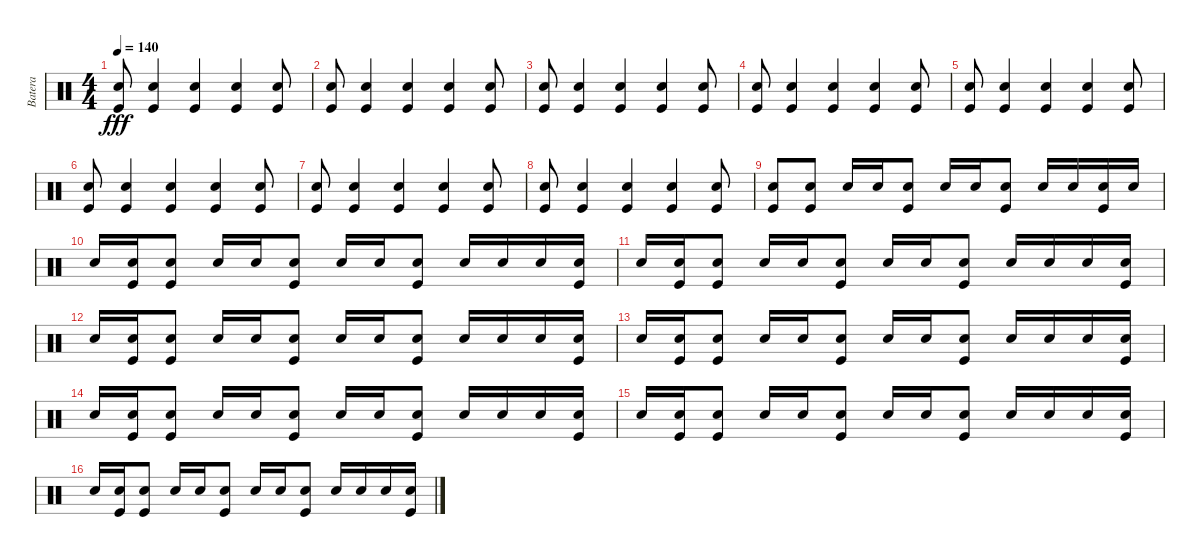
\track ("Batera" "Batera") {instrument percussion}
\staff {score}
\articulation defaults
\ts (4 4)
\tempo 140
\clef neutral
\ks c
("Kick (hit)" "Snare (hit) 2").8{dy fff} ("Kick (hit)" "Snare (hit) 2").4 ("Kick (hit)" "Snare (hit) 2").4 ("Kick (hit)" "Snare (hit) 2").4 ("Kick (hit)" "Snare (hit) 2").8 |
("Kick (hit)" "Snare (hit) 2").8 ("Kick (hit)" "Snare (hit) 2").4 ("Kick (hit)" "Snare (hit) 2").4 ("Kick (hit)" "Snare (hit) 2").4 ("Kick (hit)" "Snare (hit) 2").8 |
("Kick (hit)" "Snare (hit) 2").8 ("Kick (hit)" "Snare (hit) 2").4 ("Kick (hit)" "Snare (hit) 2").4 ("Kick (hit)" "Snare (hit) 2").4 ("Kick (hit)" "Snare (hit) 2").8 |
("Kick (hit)" "Snare (hit) 2").8 ("Kick (hit)" "Snare (hit) 2").4 ("Kick (hit)" "Snare (hit) 2").4 ("Kick (hit)" "Snare (hit) 2").4 ("Kick (hit)" "Snare (hit) 2").8 |
("Kick (hit)" "Snare (hit) 2").8 ("Kick (hit)" "Snare (hit) 2").4 ("Kick (hit)" "Snare (hit) 2").4 ("Kick (hit)" "Snare (hit) 2").4 ("Kick (hit)" "Snare (hit) 2").8 |
("Kick (hit)" "Snare (hit) 2").8 ("Kick (hit)" "Snare (hit) 2").4 ("Kick (hit)" "Snare (hit) 2").4 ("Kick (hit)" "Snare (hit) 2").4 ("Kick (hit)" "Snare (hit) 2").8 |
("Kick (hit)" "Snare (hit) 2").8 ("Kick (hit)" "Snare (hit) 2").4 ("Kick (hit)" "Snare (hit) 2").4 ("Kick (hit)" "Snare (hit) 2").4 ("Kick (hit)" "Snare (hit) 2").8 |
("Kick (hit)" "Snare (hit) 2").8 ("Kick (hit)" "Snare (hit) 2").4 ("Kick (hit)" "Snare (hit) 2").4 ("Kick (hit)" "Snare (hit) 2").4 ("Kick (hit)" "Snare (hit) 2").8 |
("Kick (hit)" "Snare (hit) 2").8 ("Kick (hit)" "Snare (hit) 2").8 "Snare (hit) 2".16 "Snare (hit) 2".16 ("Kick (hit)" "Snare (hit) 2").8 "Snare (hit) 2".16 "Snare (hit) 2".16 ("Kick (hit)" "Snare (hit) 2").8 "Snare (hit) 2".16 "Snare (hit) 2".16 ("Kick (hit)" "Snare (hit) 2").16 "Snare (hit) 2".16 |
"Snare (hit) 2".16 ("Kick (hit)" "Snare (hit) 2").16 ("Kick (hit)" "Snare (hit) 2").8 "Snare (hit) 2".16 "Snare (hit) 2".16 ("Kick (hit)" "Snare (hit) 2").8 "Snare (hit) 2".16 "Snare (hit) 2".16 ("Kick (hit)" "Snare (hit) 2").8 "Snare (hit) 2".16 "Snare (hit) 2".16 "Snare (hit) 2".16 ("Kick (hit)" "Snare (hit) 2").16 |
"Snare (hit) 2".16 ("Kick (hit)" "Snare (hit) 2").16 ("Kick (hit)" "Snare (hit) 2").8 "Snare (hit) 2".16 "Snare (hit) 2".16 ("Kick (hit)" "Snare (hit) 2").8 "Snare (hit) 2".16 "Snare (hit) 2".16 ("Kick (hit)" "Snare (hit) 2").8 "Snare (hit) 2".16 "Snare (hit) 2".16 "Snare (hit) 2".16 ("Kick (hit)" "Snare (hit) 2").16 |
"Snare (hit) 2".16 ("Kick (hit)" "Snare (hit) 2").16 ("Kick (hit)" "Snare (hit) 2").8 "Snare (hit) 2".16 "Snare (hit) 2".16 ("Kick (hit)" "Snare (hit) 2").8 "Snare (hit) 2".16 "Snare (hit) 2".16 ("Kick (hit)" "Snare (hit) 2").8 "Snare (hit) 2".16 "Snare (hit) 2".16 "Snare (hit) 2".16 ("Kick (hit)" "Snare (hit) 2").16 |
"Snare (hit) 2".16 ("Kick (hit)" "Snare (hit) 2").16 ("Kick (hit)" "Snare (hit) 2").8 "Snare (hit) 2".16 "Snare (hit) 2".16 ("Kick (hit)" "Snare (hit) 2").8 "Snare (hit) 2".16 "Snare (hit) 2".16 ("Kick (hit)" "Snare (hit) 2").8 "Snare (hit) 2".16 "Snare (hit) 2".16 "Snare (hit) 2".16 ("Kick (hit)" "Snare (hit) 2").16 |
"Snare (hit) 2".16 ("Kick (hit)" "Snare (hit) 2").16 ("Kick (hit)" "Snare (hit) 2").8 "Snare (hit) 2".16 "Snare (hit) 2".16 ("Kick (hit)" "Snare (hit) 2").8 "Snare (hit) 2".16 "Snare (hit) 2".16 ("Kick (hit)" "Snare (hit) 2").8 "Snare (hit) 2".16 "Snare (hit) 2".16 "Snare (hit) 2".16 ("Kick (hit)" "Snare (hit) 2").16 |
"Snare (hit) 2".16 ("Kick (hit)" "Snare (hit) 2").16 ("Kick (hit)" "Snare (hit) 2").8 "Snare (hit) 2".16 "Snare (hit) 2".16 ("Kick (hit)" "Snare (hit) 2").8 "Snare (hit) 2".16 "Snare (hit) 2".16 ("Kick (hit)" "Snare (hit) 2").8 "Snare (hit) 2".16 "Snare (hit) 2".16 "Snare (hit) 2".16 ("Kick (hit)" "Snare (hit) 2").16 |
"Snare (hit) 2".16 ("Kick (hit)" "Snare (hit) 2").16 ("Kick (hit)" "Snare (hit) 2").8 "Snare (hit) 2".16 "Snare (hit) 2".16 ("Kick (hit)" "Snare (hit) 2").8 "Snare (hit) 2".16 "Snare (hit) 2".16 ("Kick (hit)" "Snare (hit) 2").8 "Snare (hit) 2".16 "Snare (hit) 2".16 "Snare (hit) 2".16 ("Kick (hit)" "Snare (hit) 2").16
